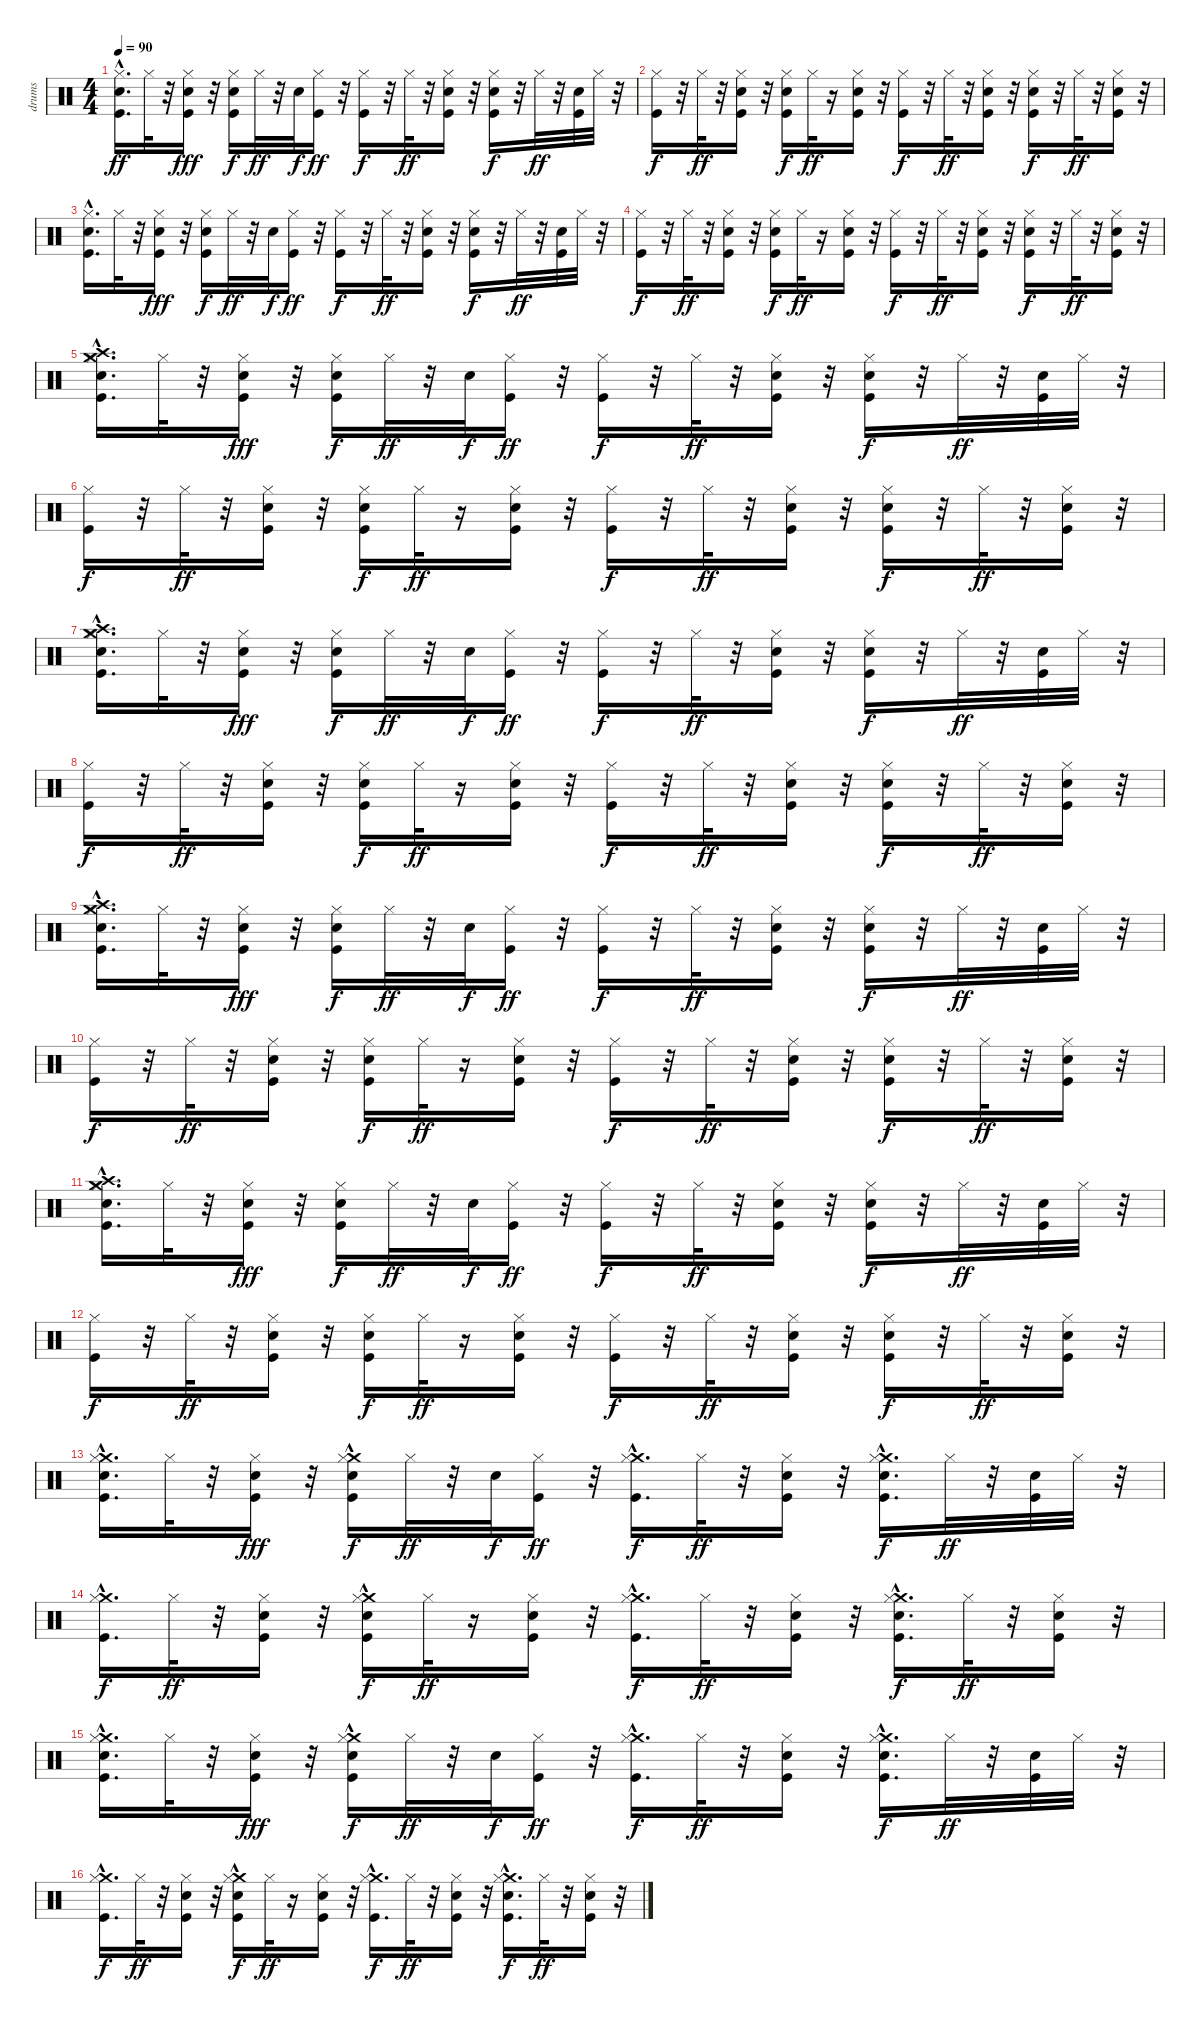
\track ("drums" "drums") {instrument percussion}
\staff {score}
\articulation defaults
\ts (4 4)
\tempo 90
\clef neutral
\ks c
("Kick (hit)" "Hi-Hat (closed)" "Snare (hit)"{hac}).16{d dy ff} "Hi-Hat (closed)".32 r.32 ("Kick (hit)" "Hi-Hat (closed)" "Snare (hit)").16{dy fff} r.32 ("Kick (hit)" "Electric Snare (hit)" "Hi-Hat (closed)").16{dy f} "Hi-Hat (closed)".32{dy ff} r.32 "Snare (hit)".32{dy f} ("Kick (hit)" "Hi-Hat (closed)").16{dy ff} r.32 ("Kick (hit)" "Hi-Hat (closed)").16{dy f} r.32 "Hi-Hat (closed)".32{dy ff} r.32 ("Kick (hit)" "Snare (hit)" "Hi-Hat (closed)").16 r.32 ("Kick (hit)" "Electric Snare (hit)" "Hi-Hat (closed)").16{dy f} r.32 "Hi-Hat (closed)".32{dy ff} r.32 ("Kick (hit)" "Snare (hit)").32 "Hi-Hat (closed)".32 r.32 |
("Kick (hit)" "Hi-Hat (closed)").16{dy f} r.32 "Hi-Hat (closed)".32{dy ff} r.32 ("Kick (hit)" "Snare (hit)" "Hi-Hat (closed)").16 r.32 ("Kick (hit)" "Electric Snare (hit)" "Hi-Hat (closed)").16{dy f} "Hi-Hat (closed)".32{dy ff} r.16 ("Kick (hit)" "Hi-Hat (closed)" "Snare (hit)").16 r.32 ("Kick (hit)" "Hi-Hat (closed)").16{dy f} r.32 "Hi-Hat (closed)".32{dy ff} r.32 ("Snare (hit)" "Kick (hit)" "Hi-Hat (closed)").16 r.32 ("Kick (hit)" "Electric Snare (hit)" "Hi-Hat (closed)").16{dy f} r.32 "Hi-Hat (closed)".32{dy ff} r.32 ("Kick (hit)" "Snare (hit)" "Hi-Hat (closed)").16 r.32 |
("Kick (hit)" "Hi-Hat (closed)" "Snare (hit)"{hac}).16{d} "Hi-Hat (closed)".32 r.32 ("Kick (hit)" "Hi-Hat (closed)" "Snare (hit)").16{dy fff} r.32 ("Kick (hit)" "Electric Snare (hit)" "Hi-Hat (closed)").16{dy f} "Hi-Hat (closed)".32{dy ff} r.32 "Snare (hit)".32{dy f} ("Kick (hit)" "Hi-Hat (closed)").16{dy ff} r.32 ("Kick (hit)" "Hi-Hat (closed)").16{dy f} r.32 "Hi-Hat (closed)".32{dy ff} r.32 ("Kick (hit)" "Snare (hit)" "Hi-Hat (closed)").16 r.32 ("Kick (hit)" "Electric Snare (hit)" "Hi-Hat (closed)").16{dy f} r.32 "Hi-Hat (closed)".32{dy ff} r.32 ("Kick (hit)" "Snare (hit)").32 "Hi-Hat (closed)".32 r.32 |
("Kick (hit)" "Hi-Hat (closed)").16{dy f} r.32 "Hi-Hat (closed)".32{dy ff} r.32 ("Kick (hit)" "Snare (hit)" "Hi-Hat (closed)").16 r.32 ("Kick (hit)" "Electric Snare (hit)" "Hi-Hat (closed)").16{dy f} "Hi-Hat (closed)".32{dy ff} r.16 ("Kick (hit)" "Hi-Hat (closed)" "Snare (hit)").16 r.32 ("Kick (hit)" "Hi-Hat (closed)").16{dy f} r.32 "Hi-Hat (closed)".32{dy ff} r.32 ("Snare (hit)" "Kick (hit)" "Hi-Hat (closed)").16 r.32 ("Kick (hit)" "Electric Snare (hit)" "Hi-Hat (closed)").16{dy f} r.32 "Hi-Hat (closed)".32{dy ff} r.32 ("Kick (hit)" "Snare (hit)" "Hi-Hat (closed)").16 r.32 |
("Kick (hit)" "Crash high (hit)"{hac} "Crash medium (hit)"{hac} "Hi-Hat (closed)" "Snare (hit)"{hac}).16{d} "Hi-Hat (closed)".32 r.32 ("Kick (hit)" "Hi-Hat (closed)" "Snare (hit)").16{dy fff} r.32 ("Kick (hit)" "Electric Snare (hit)" "Hi-Hat (closed)").16{dy f} "Hi-Hat (closed)".32{dy ff} r.32 "Snare (hit)".32{dy f} ("Kick (hit)" "Hi-Hat (closed)").16{dy ff} r.32 ("Kick (hit)" "Hi-Hat (closed)").16{dy f} r.32 "Hi-Hat (closed)".32{dy ff} r.32 ("Kick (hit)" "Snare (hit)" "Hi-Hat (closed)").16 r.32 ("Kick (hit)" "Electric Snare (hit)" "Hi-Hat (closed)").16{dy f} r.32 "Hi-Hat (closed)".32{dy ff} r.32 ("Kick (hit)" "Snare (hit)").32 "Hi-Hat (closed)".32 r.32 |
("Kick (hit)" "Hi-Hat (closed)").16{dy f} r.32 "Hi-Hat (closed)".32{dy ff} r.32 ("Kick (hit)" "Snare (hit)" "Hi-Hat (closed)").16 r.32 ("Kick (hit)" "Electric Snare (hit)" "Hi-Hat (closed)").16{dy f} "Hi-Hat (closed)".32{dy ff} r.16 ("Kick (hit)" "Hi-Hat (closed)" "Snare (hit)").16 r.32 ("Kick (hit)" "Hi-Hat (closed)").16{dy f} r.32 "Hi-Hat (closed)".32{dy ff} r.32 ("Snare (hit)" "Kick (hit)" "Hi-Hat (closed)").16 r.32 ("Kick (hit)" "Electric Snare (hit)" "Hi-Hat (closed)").16{dy f} r.32 "Hi-Hat (closed)".32{dy ff} r.32 ("Kick (hit)" "Snare (hit)" "Hi-Hat (closed)").16 r.32 |
("Kick (hit)" "Crash high (hit)"{hac} "Crash medium (hit)"{hac} "Hi-Hat (closed)" "Snare (hit)"{hac}).16{d} "Hi-Hat (closed)".32 r.32 ("Kick (hit)" "Hi-Hat (closed)" "Snare (hit)").16{dy fff} r.32 ("Kick (hit)" "Electric Snare (hit)" "Hi-Hat (closed)").16{dy f} "Hi-Hat (closed)".32{dy ff} r.32 "Snare (hit)".32{dy f} ("Kick (hit)" "Hi-Hat (closed)").16{dy ff} r.32 ("Kick (hit)" "Hi-Hat (closed)").16{dy f} r.32 "Hi-Hat (closed)".32{dy ff} r.32 ("Kick (hit)" "Snare (hit)" "Hi-Hat (closed)").16 r.32 ("Kick (hit)" "Electric Snare (hit)" "Hi-Hat (closed)").16{dy f} r.32 "Hi-Hat (closed)".32{dy ff} r.32 ("Kick (hit)" "Snare (hit)").32 "Hi-Hat (closed)".32 r.32 |
("Kick (hit)" "Hi-Hat (closed)").16{dy f} r.32 "Hi-Hat (closed)".32{dy ff} r.32 ("Kick (hit)" "Snare (hit)" "Hi-Hat (closed)").16 r.32 ("Kick (hit)" "Electric Snare (hit)" "Hi-Hat (closed)").16{dy f} "Hi-Hat (closed)".32{dy ff} r.16 ("Kick (hit)" "Hi-Hat (closed)" "Snare (hit)").16 r.32 ("Kick (hit)" "Hi-Hat (closed)").16{dy f} r.32 "Hi-Hat (closed)".32{dy ff} r.32 ("Snare (hit)" "Kick (hit)" "Hi-Hat (closed)").16 r.32 ("Kick (hit)" "Electric Snare (hit)" "Hi-Hat (closed)").16{dy f} r.32 "Hi-Hat (closed)".32{dy ff} r.32 ("Kick (hit)" "Snare (hit)" "Hi-Hat (closed)").16 r.32 |
("Kick (hit)" "Crash medium (hit)"{hac} "Crash high (hit)"{hac} "Hi-Hat (closed)" "Snare (hit)"{hac}).16{d} "Hi-Hat (closed)".32 r.32 ("Kick (hit)" "Hi-Hat (closed)" "Snare (hit)").16{dy fff} r.32 ("Kick (hit)" "Electric Snare (hit)" "Hi-Hat (closed)").16{dy f} "Hi-Hat (closed)".32{dy ff} r.32 "Snare (hit)".32{dy f} ("Kick (hit)" "Hi-Hat (closed)").16{dy ff} r.32 ("Kick (hit)" "Hi-Hat (closed)").16{dy f} r.32 "Hi-Hat (closed)".32{dy ff} r.32 ("Kick (hit)" "Snare (hit)" "Hi-Hat (closed)").16 r.32 ("Kick (hit)" "Electric Snare (hit)" "Hi-Hat (closed)").16{dy f} r.32 "Hi-Hat (closed)".32{dy ff} r.32 ("Kick (hit)" "Snare (hit)").32 "Hi-Hat (closed)".32 r.32 |
("Kick (hit)" "Hi-Hat (closed)").16{dy f} r.32 "Hi-Hat (closed)".32{dy ff} r.32 ("Kick (hit)" "Snare (hit)" "Hi-Hat (closed)").16 r.32 ("Kick (hit)" "Electric Snare (hit)" "Hi-Hat (closed)").16{dy f} "Hi-Hat (closed)".32{dy ff} r.16 ("Kick (hit)" "Hi-Hat (closed)" "Snare (hit)").16 r.32 ("Kick (hit)" "Hi-Hat (closed)").16{dy f} r.32 "Hi-Hat (closed)".32{dy ff} r.32 ("Snare (hit)" "Kick (hit)" "Hi-Hat (closed)").16 r.32 ("Kick (hit)" "Electric Snare (hit)" "Hi-Hat (closed)").16{dy f} r.32 "Hi-Hat (closed)".32{dy ff} r.32 ("Kick (hit)" "Snare (hit)" "Hi-Hat (closed)").16 r.32 |
("Kick (hit)" "Crash medium (hit)"{hac} "Crash high (hit)"{hac} "Hi-Hat (closed)" "Snare (hit)"{hac}).16{d} "Hi-Hat (closed)".32 r.32 ("Kick (hit)" "Hi-Hat (closed)" "Snare (hit)").16{dy fff} r.32 ("Kick (hit)" "Electric Snare (hit)" "Hi-Hat (closed)").16{dy f} "Hi-Hat (closed)".32{dy ff} r.32 "Snare (hit)".32{dy f} ("Kick (hit)" "Hi-Hat (closed)").16{dy ff} r.32 ("Kick (hit)" "Hi-Hat (closed)").16{dy f} r.32 "Hi-Hat (closed)".32{dy ff} r.32 ("Kick (hit)" "Snare (hit)" "Hi-Hat (closed)").16 r.32 ("Kick (hit)" "Electric Snare (hit)" "Hi-Hat (closed)").16{dy f} r.32 "Hi-Hat (closed)".32{dy ff} r.32 ("Kick (hit)" "Snare (hit)").32 "Hi-Hat (closed)".32 r.32 |
("Kick (hit)" "Hi-Hat (closed)").16{dy f} r.32 "Hi-Hat (closed)".32{dy ff} r.32 ("Kick (hit)" "Snare (hit)" "Hi-Hat (closed)").16 r.32 ("Kick (hit)" "Electric Snare (hit)" "Hi-Hat (closed)").16{dy f} "Hi-Hat (closed)".32{dy ff} r.16 ("Kick (hit)" "Hi-Hat (closed)" "Snare (hit)").16 r.32 ("Kick (hit)" "Hi-Hat (closed)").16{dy f} r.32 "Hi-Hat (closed)".32{dy ff} r.32 ("Snare (hit)" "Kick (hit)" "Hi-Hat (closed)").16 r.32 ("Kick (hit)" "Electric Snare (hit)" "Hi-Hat (closed)").16{dy f} r.32 "Hi-Hat (closed)".32{dy ff} r.32 ("Kick (hit)" "Snare (hit)" "Hi-Hat (closed)").16 r.32 |
("Kick (hit)" "Crash medium (hit)"{hac} "Hi-Hat (closed)" "Snare (hit)"{hac}).16{d} "Hi-Hat (closed)".32 r.32 ("Kick (hit)" "Hi-Hat (closed)" "Snare (hit)").16{dy fff} r.32 ("Kick (hit)" "Crash medium (hit)"{hac} "Electric Snare (hit)" "Hi-Hat (closed)").16{dy f} "Hi-Hat (closed)".32{dy ff} r.32 "Snare (hit)".32{dy f} ("Kick (hit)" "Hi-Hat (closed)").16{dy ff} r.32 ("Kick (hit)" "Crash medium (hit)"{hac} "Hi-Hat (closed)").16{d dy f} "Hi-Hat (closed)".32{dy ff} r.32 ("Kick (hit)" "Snare (hit)" "Hi-Hat (closed)").16 r.32 ("Kick (hit)" "Crash medium (hit)"{hac} "Electric Snare (hit)" "Hi-Hat (closed)").16{d dy f} "Hi-Hat (closed)".32{dy ff} r.32 ("Kick (hit)" "Snare (hit)").32 "Hi-Hat (closed)".32 r.32 |
("Kick (hit)" "Crash medium (hit)"{hac} "Hi-Hat (closed)").16{d dy f} "Hi-Hat (closed)".32{dy ff} r.32 ("Kick (hit)" "Snare (hit)" "Hi-Hat (closed)").16 r.32 ("Kick (hit)" "Crash medium (hit)"{hac} "Electric Snare (hit)" "Hi-Hat (closed)").16{dy f} "Hi-Hat (closed)".32{dy ff} r.16 ("Kick (hit)" "Hi-Hat (closed)" "Snare (hit)").16 r.32 ("Kick (hit)" "Crash medium (hit)"{hac} "Hi-Hat (closed)").16{d dy f} "Hi-Hat (closed)".32{dy ff} r.32 ("Snare (hit)" "Kick (hit)" "Hi-Hat (closed)").16 r.32 ("Kick (hit)" "Crash medium (hit)"{hac} "Electric Snare (hit)" "Hi-Hat (closed)").16{d dy f} "Hi-Hat (closed)".32{dy ff} r.32 ("Kick (hit)" "Snare (hit)" "Hi-Hat (closed)").16 r.32 |
("Kick (hit)" "Crash medium (hit)"{hac} "Hi-Hat (closed)" "Snare (hit)"{hac}).16{d} "Hi-Hat (closed)".32 r.32 ("Kick (hit)" "Hi-Hat (closed)" "Snare (hit)").16{dy fff} r.32 ("Kick (hit)" "Crash medium (hit)"{hac} "Electric Snare (hit)" "Hi-Hat (closed)").16{dy f} "Hi-Hat (closed)".32{dy ff} r.32 "Snare (hit)".32{dy f} ("Kick (hit)" "Hi-Hat (closed)").16{dy ff} r.32 ("Kick (hit)" "Crash medium (hit)"{hac} "Hi-Hat (closed)").16{d dy f} "Hi-Hat (closed)".32{dy ff} r.32 ("Kick (hit)" "Snare (hit)" "Hi-Hat (closed)").16 r.32 ("Kick (hit)" "Crash medium (hit)"{hac} "Electric Snare (hit)" "Hi-Hat (closed)").16{d dy f} "Hi-Hat (closed)".32{dy ff} r.32 ("Kick (hit)" "Snare (hit)").32 "Hi-Hat (closed)".32 r.32 |
("Kick (hit)" "Crash medium (hit)"{hac} "Hi-Hat (closed)").16{d dy f} "Hi-Hat (closed)".32{dy ff} r.32 ("Kick (hit)" "Snare (hit)" "Hi-Hat (closed)").16 r.32 ("Kick (hit)" "Crash medium (hit)"{hac} "Electric Snare (hit)" "Hi-Hat (closed)").16{dy f} "Hi-Hat (closed)".32{dy ff} r.16 ("Kick (hit)" "Hi-Hat (closed)" "Snare (hit)").16 r.32 ("Kick (hit)" "Crash medium (hit)"{hac} "Hi-Hat (closed)").16{d dy f} "Hi-Hat (closed)".32{dy ff} r.32 ("Snare (hit)" "Kick (hit)" "Hi-Hat (closed)").16 r.32 ("Kick (hit)" "Crash medium (hit)"{hac} "Electric Snare (hit)" "Hi-Hat (closed)").16{d dy f} "Hi-Hat (closed)".32{dy ff} r.32 ("Kick (hit)" "Snare (hit)" "Hi-Hat (closed)").16 r.32
